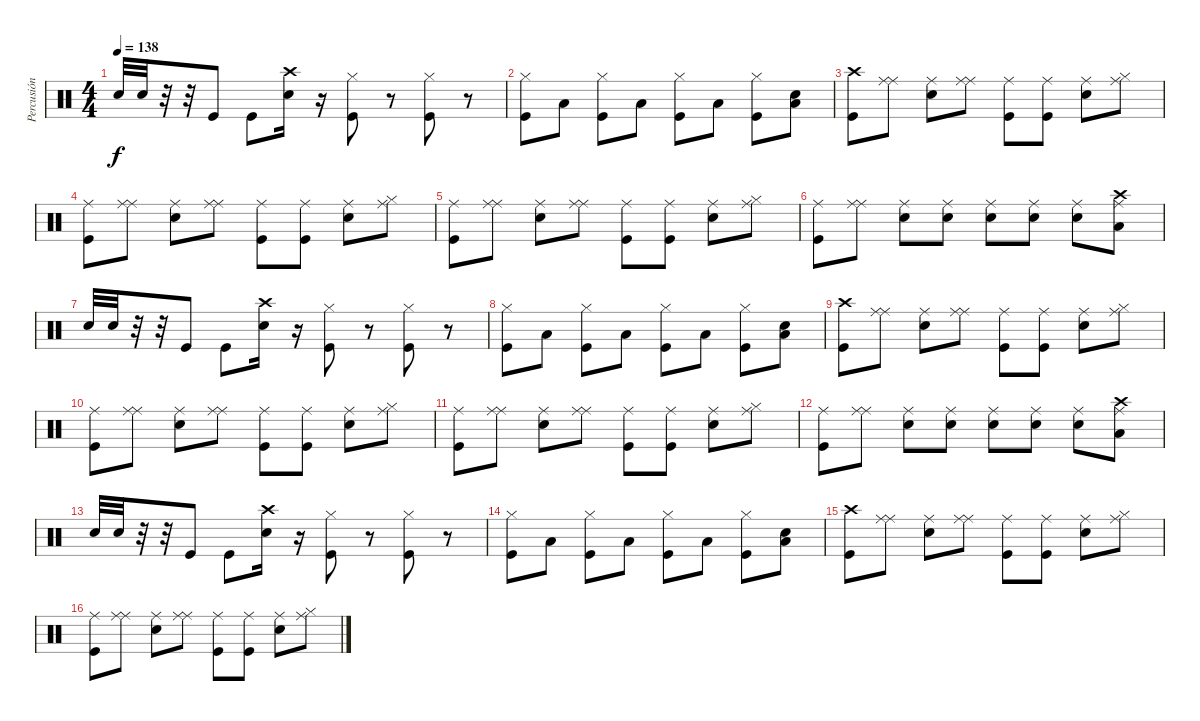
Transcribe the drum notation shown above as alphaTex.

\track ("Percusión" "Percusión") {instrument percussion}
\staff {score}
\articulation defaults
\ts (4 4)
\tempo 138
\clef neutral
\ks c "Snare (hit) 2".32{dy f} "Snare (hit) 2".32
r.32 r.32 "Kick (hit)".8 "Kick (hit)".8 ("Crash high (hit)" "Snare (hit) 2").16 r.16 ("Hi-Hat (closed)" "Kick (hit)").8 r.8 ("Hi-Hat (closed)" "Kick (hit)").8 r.8 |
("Hi-Hat (closed)" "Kick (hit)").8 "Low Tom (hit)".8 ("Hi-Hat (closed)" "Kick (hit)").8 "Low Floor Tom (hit)".8 ("Hi-Hat (closed)" "Kick (hit)").8 "Low Floor Tom (hit)".8 ("Hi-Hat (closed)" "Kick (hit)").8 ("Low Floor Tom (hit)" "Snare (hit) 2").8 |
("Crash high (hit)" "Kick (hit)").8 ("Ride (middle)" "Ride (middle)").8 ("Ride (middle)" "Snare (hit) 2").8 ("Ride (middle)" "Ride (middle)").8 ("Ride (middle)" "Kick (hit)").8 ("Ride (middle)" "Kick (hit)").8 ("Ride (middle)" "Snare (hit) 2").8 ("Ride (middle)" "Hi-Hat (closed)").8 |
("Ride (middle)" "Kick (hit)").8 ("Ride (middle)" "Ride (middle)").8 ("Ride (middle)" "Snare (hit) 2").8 ("Ride (middle)" "Ride (middle)").8 ("Ride (middle)" "Kick (hit)").8 ("Ride (middle)" "Kick (hit)").8 ("Ride (middle)" "Snare (hit) 2").8 ("Ride (middle)" "Hi-Hat (closed)").8 |
("Ride (middle)" "Kick (hit)").8 ("Ride (middle)" "Ride (middle)").8 ("Ride (middle)" "Snare (hit) 2").8 ("Ride (middle)" "Ride (middle)").8 ("Ride (middle)" "Kick (hit)").8 ("Ride (middle)" "Kick (hit)").8 ("Ride (middle)" "Snare (hit) 2").8 ("Ride (middle)" "Hi-Hat (closed)").8 |
("Ride (middle)" "Kick (hit)").8 ("Ride (middle)" "Ride (middle)").8 ("Ride (middle)" "Snare (hit) 2").8 ("Ride (middle)" "Snare (hit) 2").8 ("Ride (middle)" "Snare (hit) 2").8 ("Ride (middle)" "Snare (hit) 2").8 ("Ride (middle)" "Snare (hit) 2").8 ("Ride (middle)" "Low Tom (hit)" "Crash high (hit)").8 |
"Snare (hit) 2".32 "Snare (hit) 2".32 r.32 r.32 "Kick (hit)".8 "Kick (hit)".8 ("Crash high (hit)" "Snare (hit) 2").16 r.16 ("Hi-Hat (closed)" "Kick (hit)").8 r.8 ("Hi-Hat (closed)" "Kick (hit)").8 r.8 |
("Hi-Hat (closed)" "Kick (hit)").8 "Low Tom (hit)".8 ("Hi-Hat (closed)" "Kick (hit)").8 "Low Floor Tom (hit)".8 ("Hi-Hat (closed)" "Kick (hit)").8 "Low Floor Tom (hit)".8 ("Hi-Hat (closed)" "Kick (hit)").8 ("Low Floor Tom (hit)" "Snare (hit) 2").8 |
("Crash high (hit)" "Kick (hit)").8 ("Ride (middle)" "Ride (middle)").8 ("Ride (middle)" "Snare (hit) 2").8 ("Ride (middle)" "Ride (middle)").8 ("Ride (middle)" "Kick (hit)").8 ("Ride (middle)" "Kick (hit)").8 ("Ride (middle)" "Snare (hit) 2").8 ("Ride (middle)" "Hi-Hat (closed)").8 |
("Ride (middle)" "Kick (hit)").8 ("Ride (middle)" "Ride (middle)").8 ("Ride (middle)" "Snare (hit) 2").8 ("Ride (middle)" "Ride (middle)").8 ("Ride (middle)" "Kick (hit)").8 ("Ride (middle)" "Kick (hit)").8 ("Ride (middle)" "Snare (hit) 2").8 ("Ride (middle)" "Hi-Hat (closed)").8 |
("Ride (middle)" "Kick (hit)").8 ("Ride (middle)" "Ride (middle)").8 ("Ride (middle)" "Snare (hit) 2").8 ("Ride (middle)" "Ride (middle)").8 ("Ride (middle)" "Kick (hit)").8 ("Ride (middle)" "Kick (hit)").8 ("Ride (middle)" "Snare (hit) 2").8 ("Ride (middle)" "Hi-Hat (closed)").8 |
("Ride (middle)" "Kick (hit)").8 ("Ride (middle)" "Ride (middle)").8 ("Ride (middle)" "Snare (hit) 2").8 ("Ride (middle)" "Snare (hit) 2").8 ("Ride (middle)" "Snare (hit) 2").8 ("Ride (middle)" "Snare (hit) 2").8 ("Ride (middle)" "Snare (hit) 2").8 ("Ride (middle)" "Low Tom (hit)" "Crash high (hit)").8 |
"Snare (hit) 2".32 "Snare (hit) 2".32 r.32 r.32 "Kick (hit)".8 "Kick (hit)".8 ("Crash high (hit)" "Snare (hit) 2").16 r.16 ("Hi-Hat (closed)" "Kick (hit)").8 r.8 ("Hi-Hat (closed)" "Kick (hit)").8 r.8 |
("Hi-Hat (closed)" "Kick (hit)").8 "Low Tom (hit)".8 ("Hi-Hat (closed)" "Kick (hit)").8 "Low Floor Tom (hit)".8 ("Hi-Hat (closed)" "Kick (hit)").8 "Low Floor Tom (hit)".8 ("Hi-Hat (closed)" "Kick (hit)").8 ("Low Floor Tom (hit)" "Snare (hit) 2").8 |
("Crash high (hit)" "Kick (hit)").8 ("Ride (middle)" "Ride (middle)").8 ("Ride (middle)" "Snare (hit) 2").8 ("Ride (middle)" "Ride (middle)").8 ("Ride (middle)" "Kick (hit)").8 ("Ride (middle)" "Kick (hit)").8 ("Ride (middle)" "Snare (hit) 2").8 ("Ride (middle)" "Hi-Hat (closed)").8 |
("Ride (middle)" "Kick (hit)").8 ("Ride (middle)" "Ride (middle)").8 ("Ride (middle)" "Snare (hit) 2").8 ("Ride (middle)" "Ride (middle)").8 ("Ride (middle)" "Kick (hit)").8 ("Ride (middle)" "Kick (hit)").8 ("Ride (middle)" "Snare (hit) 2").8 ("Ride (middle)" "Hi-Hat (closed)").8
